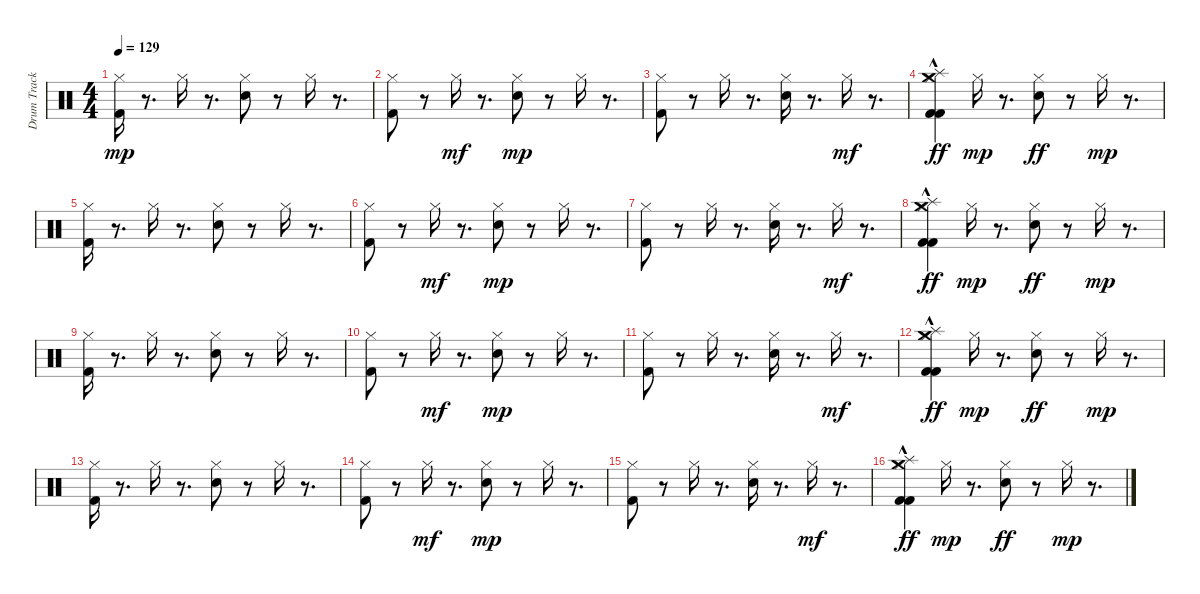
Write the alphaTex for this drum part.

\track ("Drum Track 1" "Drum Track") {instrument percussion}
\staff {score}
\articulation defaults
\ts (4 4)
\tempo 129
\clef neutral
\ks c
("Kick (hit) 2" "Hi-Hat (closed)").16{dy mp} r.8{d} "Hi-Hat (closed)".16 r.8{d} ("Snare (hit) 2" "Hi-Hat (closed)").8 r.8 "Hi-Hat (closed)".16 r.8{d} |
("Kick (hit) 2" "Hi-Hat (closed)").8 r.8 "Hi-Hat (closed)".16{dy mf} r.8{d} ("Hi-Hat (closed)" "Snare (hit) 2").8{dy mp} r.8 "Hi-Hat (closed)".16 r.8{d} |
("Hi-Hat (closed)" "Kick (hit) 2").8 r.8 "Hi-Hat (closed)".16 r.8{d} ("Hi-Hat (closed)" "Snare (hit) 2").16 r.8{d} "Hi-Hat (closed)".16{dy mf} r.8{d} |
("Kick (hit) 2" "Hi-Hat (closed)" "Crash medium (hit)"{hac} "Splash (hit)"{hac} "Kick (hit) 2"{hac}).4{dy ff} "Hi-Hat (closed)".16{dy mp} r.8{d} ("Hi-Hat (closed)" "Snare (hit) 2").8{dy ff} r.8 "Hi-Hat (closed)".16{dy mp} r.8{d} |
("Kick (hit) 2" "Hi-Hat (closed)").16 r.8{d} "Hi-Hat (closed)".16 r.8{d} ("Snare (hit) 2" "Hi-Hat (closed)").8 r.8 "Hi-Hat (closed)".16 r.8{d} |
("Kick (hit) 2" "Hi-Hat (closed)").8 r.8 "Hi-Hat (closed)".16{dy mf} r.8{d} ("Hi-Hat (closed)" "Snare (hit) 2").8{dy mp} r.8 "Hi-Hat (closed)".16 r.8{d} |
("Hi-Hat (closed)" "Kick (hit) 2").8 r.8 "Hi-Hat (closed)".16 r.8{d} ("Hi-Hat (closed)" "Snare (hit) 2").16 r.8{d} "Hi-Hat (closed)".16{dy mf} r.8{d} |
("Kick (hit) 2" "Hi-Hat (closed)" "Crash medium (hit)"{hac} "Splash (hit)"{hac} "Kick (hit) 2"{hac}).4{dy ff} "Hi-Hat (closed)".16{dy mp} r.8{d} ("Hi-Hat (closed)" "Snare (hit) 2").8{dy ff} r.8 "Hi-Hat (closed)".16{dy mp} r.8{d} |
("Kick (hit) 2" "Hi-Hat (closed)").16 r.8{d} "Hi-Hat (closed)".16 r.8{d} ("Snare (hit) 2" "Hi-Hat (closed)").8 r.8 "Hi-Hat (closed)".16 r.8{d} |
("Kick (hit) 2" "Hi-Hat (closed)").8 r.8 "Hi-Hat (closed)".16{dy mf} r.8{d} ("Hi-Hat (closed)" "Snare (hit) 2").8{dy mp} r.8 "Hi-Hat (closed)".16 r.8{d} |
("Hi-Hat (closed)" "Kick (hit) 2").8 r.8 "Hi-Hat (closed)".16 r.8{d} ("Hi-Hat (closed)" "Snare (hit) 2").16 r.8{d} "Hi-Hat (closed)".16{dy mf} r.8{d} |
("Kick (hit) 2" "Hi-Hat (closed)" "Crash medium (hit)"{hac} "Splash (hit)"{hac} "Kick (hit) 2"{hac}).4{dy ff} "Hi-Hat (closed)".16{dy mp} r.8{d} ("Hi-Hat (closed)" "Snare (hit) 2").8{dy ff} r.8 "Hi-Hat (closed)".16{dy mp} r.8{d} |
("Kick (hit) 2" "Hi-Hat (closed)").16 r.8{d} "Hi-Hat (closed)".16 r.8{d} ("Snare (hit) 2" "Hi-Hat (closed)").8 r.8 "Hi-Hat (closed)".16 r.8{d} |
("Kick (hit) 2" "Hi-Hat (closed)").8 r.8 "Hi-Hat (closed)".16{dy mf} r.8{d} ("Hi-Hat (closed)" "Snare (hit) 2").8{dy mp} r.8 "Hi-Hat (closed)".16 r.8{d} |
("Hi-Hat (closed)" "Kick (hit) 2").8 r.8 "Hi-Hat (closed)".16 r.8{d} ("Hi-Hat (closed)" "Snare (hit) 2").16 r.8{d} "Hi-Hat (closed)".16{dy mf} r.8{d} |
("Kick (hit) 2" "Hi-Hat (closed)" "Crash medium (hit)"{hac} "Splash (hit)"{hac} "Kick (hit) 2"{hac}).4{dy ff} "Hi-Hat (closed)".16{dy mp} r.8{d} ("Hi-Hat (closed)" "Snare (hit) 2").8{dy ff} r.8 "Hi-Hat (closed)".16{dy mp} r.8{d}
